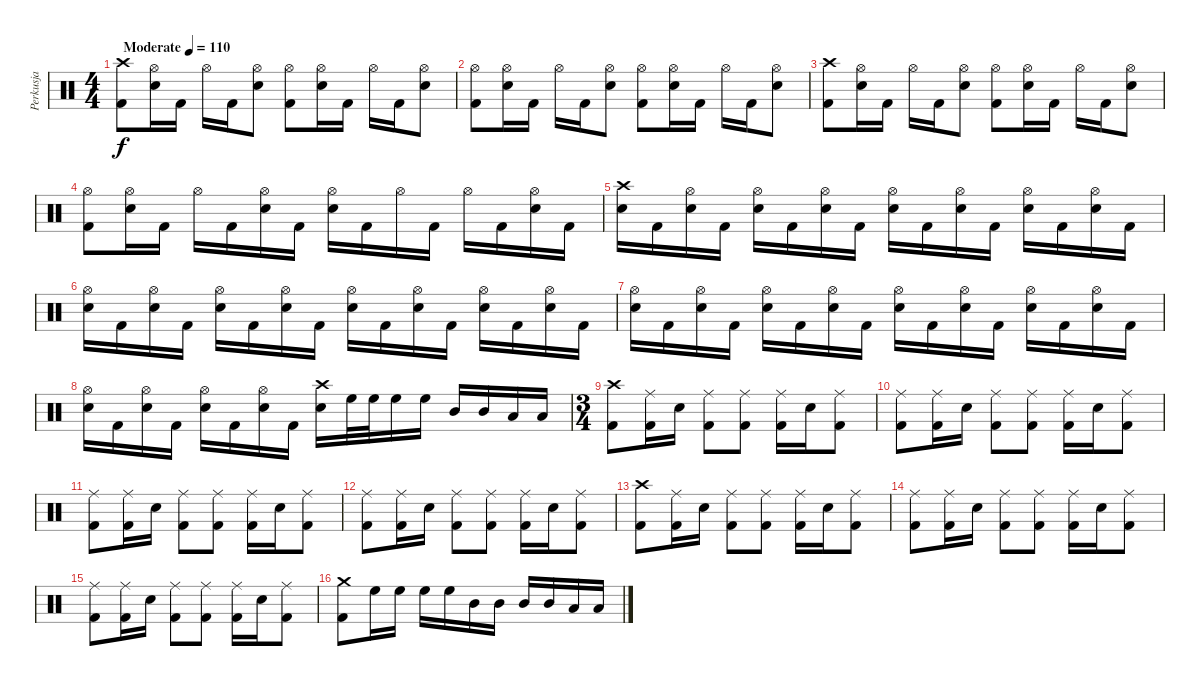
\track ("Perkusja" "Perkusja") {instrument percussion}
\staff {score}
\articulation defaults
\ts (4 4)
\tempo (110 "Moderate")
\clef neutral
\ks c
("Crash high (hit)" "Kick (hit) 2").8{dy f} ("Hi-Hat (open)" "Snare (hit) 2").16 "Kick (hit) 2".16 "Hi-Hat (open)".16 "Kick (hit) 2".16 ("Hi-Hat (open)" "Snare (hit) 2").8 ("Hi-Hat (open)" "Kick (hit) 2").8 ("Hi-Hat (open)" "Snare (hit) 2").16 "Kick (hit) 2".16 "Hi-Hat (open)".16 "Kick (hit) 2".16 ("Hi-Hat (open)" "Snare (hit) 2").8 |
("Hi-Hat (open)" "Kick (hit) 2").8 ("Hi-Hat (open)" "Snare (hit) 2").16 "Kick (hit) 2".16 "Hi-Hat (open)".16 "Kick (hit) 2".16 ("Hi-Hat (open)" "Snare (hit) 2").8 ("Hi-Hat (open)" "Kick (hit) 2").8 ("Hi-Hat (open)" "Snare (hit) 2").16 "Kick (hit) 2".16 "Hi-Hat (open)".16 "Kick (hit) 2".16 ("Hi-Hat (open)" "Snare (hit) 2").8 |
("Crash high (hit)" "Kick (hit) 2").8 ("Hi-Hat (open)" "Snare (hit) 2").16 "Kick (hit) 2".16 "Hi-Hat (open)".16 "Kick (hit) 2".16 ("Hi-Hat (open)" "Snare (hit) 2").8 ("Hi-Hat (open)" "Kick (hit) 2").8 ("Hi-Hat (open)" "Snare (hit) 2").16 "Kick (hit) 2".16 "Hi-Hat (open)".16 "Kick (hit) 2".16 ("Hi-Hat (open)" "Snare (hit) 2").8 |
("Hi-Hat (open)" "Kick (hit) 2").8 ("Hi-Hat (open)" "Snare (hit) 2").16 "Kick (hit) 2".16 "Hi-Hat (open)".16 "Kick (hit) 2".16 ("Hi-Hat (open)" "Snare (hit) 2").16 "Kick (hit) 2".16 ("Hi-Hat (open)" "Snare (hit) 2").16 "Kick (hit) 2".16 "Hi-Hat (open)".16 "Kick (hit) 2".16 "Hi-Hat (open)".16 "Kick (hit) 2".16 ("Hi-Hat (open)" "Snare (hit) 2").16 "Kick (hit) 2".16 |
("Crash high (hit)" "Snare (hit) 2").16 "Kick (hit) 2".16 ("Hi-Hat (open)" "Snare (hit) 2").16 "Kick (hit) 2".16 ("Hi-Hat (open)" "Snare (hit) 2").16 "Kick (hit) 2".16 ("Hi-Hat (open)" "Snare (hit) 2").16 "Kick (hit) 2".16 ("Hi-Hat (open)" "Snare (hit) 2").16 "Kick (hit) 2".16 ("Hi-Hat (open)" "Snare (hit) 2").16 "Kick (hit) 2".16 ("Hi-Hat (open)" "Snare (hit) 2").16 "Kick (hit) 2".16 ("Hi-Hat (open)" "Snare (hit) 2").16 "Kick (hit) 2".16 |
("Hi-Hat (open)" "Snare (hit) 2").16 "Kick (hit) 2".16 ("Hi-Hat (open)" "Snare (hit) 2").16 "Kick (hit) 2".16 ("Hi-Hat (open)" "Snare (hit) 2").16 "Kick (hit) 2".16 ("Hi-Hat (open)" "Snare (hit) 2").16 "Kick (hit) 2".16 ("Hi-Hat (open)" "Snare (hit) 2").16 "Kick (hit) 2".16 ("Hi-Hat (open)" "Snare (hit) 2").16 "Kick (hit) 2".16 ("Hi-Hat (open)" "Snare (hit) 2").16 "Kick (hit) 2".16 ("Hi-Hat (open)" "Snare (hit) 2").16 "Kick (hit) 2".16 |
("Hi-Hat (open)" "Snare (hit) 2").16 "Kick (hit) 2".16 ("Hi-Hat (open)" "Snare (hit) 2").16 "Kick (hit) 2".16 ("Hi-Hat (open)" "Snare (hit) 2").16 "Kick (hit) 2".16 ("Hi-Hat (open)" "Snare (hit) 2").16 "Kick (hit) 2".16 ("Hi-Hat (open)" "Snare (hit) 2").16 "Kick (hit) 2".16 ("Hi-Hat (open)" "Snare (hit) 2").16 "Kick (hit) 2".16 ("Hi-Hat (open)" "Snare (hit) 2").16 "Kick (hit) 2".16 ("Hi-Hat (open)" "Snare (hit) 2").16 "Kick (hit) 2".16 |
("Hi-Hat (open)" "Snare (hit) 2").16 "Kick (hit) 2".16 ("Hi-Hat (open)" "Snare (hit) 2").16 "Kick (hit) 2".16 ("Hi-Hat (open)" "Snare (hit) 2").16 "Kick (hit) 2".16 ("Hi-Hat (open)" "Snare (hit) 2").16 "Kick (hit) 2".16 ("Crash high (hit)" "Snare (hit) 2").16 "High Floor Tom (hit)".32 "High Floor Tom (hit)".32 "High Floor Tom (hit)".16 "High Floor Tom (hit)".16 "Mid Tom (hit)".16 "Mid Tom (hit)".16 "Low Floor Tom (hit)".16 "Low Floor Tom (hit)".16 |
\ts (3 4)
("Crash high (hit)" "Kick (hit) 2").8 ("Ride (middle)" "Kick (hit) 2").16 "Snare (hit) 2".16 ("Ride (middle)" "Kick (hit) 2").8 ("Ride (middle)" "Kick (hit) 2").8 ("Ride (middle)" "Kick (hit) 2").16 "Snare (hit) 2".16 ("Ride (middle)" "Kick (hit) 2").8 |
("Ride (middle)" "Kick (hit) 2").8 ("Ride (middle)" "Kick (hit) 2").16 "Snare (hit) 2".16 ("Ride (middle)" "Kick (hit) 2").8 ("Ride (middle)" "Kick (hit) 2").8 ("Ride (middle)" "Kick (hit) 2").16 "Snare (hit) 2".16 ("Ride (middle)" "Kick (hit) 2").8 |
("Ride (middle)" "Kick (hit) 2").8 ("Ride (middle)" "Kick (hit) 2").16 "Snare (hit) 2".16 ("Ride (middle)" "Kick (hit) 2").8 ("Ride (middle)" "Kick (hit) 2").8 ("Ride (middle)" "Kick (hit) 2").16 "Snare (hit) 2".16 ("Ride (middle)" "Kick (hit) 2").8 |
("Ride (middle)" "Kick (hit) 2").8 ("Ride (middle)" "Kick (hit) 2").16 "Snare (hit) 2".16 ("Ride (middle)" "Kick (hit) 2").8 ("Ride (middle)" "Kick (hit) 2").8 ("Ride (middle)" "Kick (hit) 2").16 "Snare (hit) 2".16 ("Ride (middle)" "Kick (hit) 2").8 |
("Crash high (hit)" "Kick (hit) 2").8 ("Ride (middle)" "Kick (hit) 2").16 "Snare (hit) 2".16 ("Ride (middle)" "Kick (hit) 2").8 ("Ride (middle)" "Kick (hit) 2").8 ("Ride (middle)" "Kick (hit) 2").16 "Snare (hit) 2".16 ("Ride (middle)" "Kick (hit) 2").8 |
("Ride (middle)" "Kick (hit) 2").8 ("Ride (middle)" "Kick (hit) 2").16 "Snare (hit) 2".16 ("Ride (middle)" "Kick (hit) 2").8 ("Ride (middle)" "Kick (hit) 2").8 ("Ride (middle)" "Kick (hit) 2").16 "Snare (hit) 2".16 ("Ride (middle)" "Kick (hit) 2").8 |
("Ride (middle)" "Kick (hit) 2").8 ("Ride (middle)" "Kick (hit) 2").16 "Snare (hit) 2".16 ("Ride (middle)" "Kick (hit) 2").8 ("Ride (middle)" "Kick (hit) 2").8 ("Ride (middle)" "Kick (hit) 2").16 "Snare (hit) 2".16 ("Ride (middle)" "Kick (hit) 2").8 |
("Crash medium (hit)" "Kick (hit) 2").8 "High Floor Tom (hit)".16 "High Floor Tom (hit)".16 "High Floor Tom (hit)".16 "High Floor Tom (hit)".16 "Mid Tom (hit)".16 "Mid Tom (hit)".16 "Mid Tom (hit)".16 "Mid Tom (hit)".16 "Low Floor Tom (hit)".16 "Low Floor Tom (hit)".16
